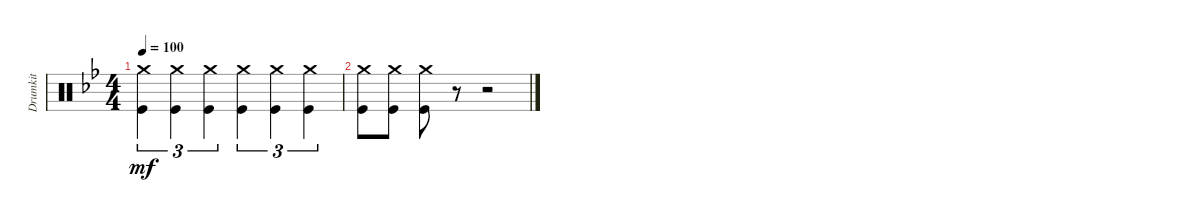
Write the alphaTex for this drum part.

\track ("Drumkit" "Drumkit") {instrument percussion}
\staff {score}
\articulation defaults
\ts (4 4)
\tempo 100
\clef neutral
\ks bb
("Kick (hit)" "Crash medium (hit)").4{tu (3 2) dy mf} ("Kick (hit)" "Crash medium (hit)").4{tu (3 2)} ("Kick (hit)" "Crash medium (hit)").4{tu (3 2)} ("Kick (hit)" "Crash medium (hit)").4{tu (3 2)} ("Kick (hit)" "Crash medium (hit)").4{tu (3 2)} ("Kick (hit)" "Crash medium (hit)").4{tu (3 2)} |
("Crash medium (hit)" "Kick (hit)").8 ("Crash medium (hit)" "Kick (hit)").8 ("Crash medium (hit)" "Kick (hit)").8 r.8 r.2
